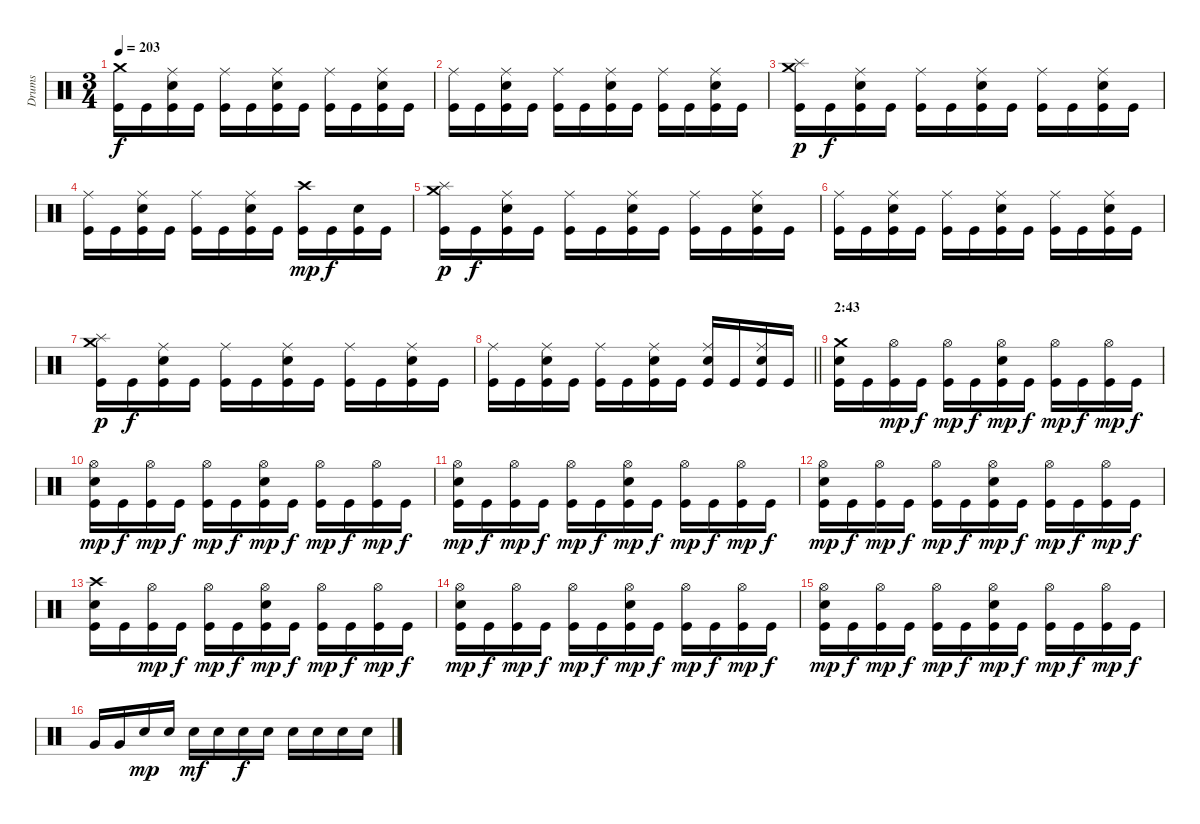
\track ("Drums" "Drums") {instrument percussion}
\staff {score}
\articulation defaults
\ts (3 4)
\tempo 203
\clef neutral
\ks c
("Crash medium (hit)" "Kick (hit)").16{dy f} "Kick (hit)".16 ("Ride (middle)" "Electric Snare (hit)" "Kick (hit)").16 "Kick (hit)".16 ("Ride (middle)" "Kick (hit)").16 "Kick (hit)".16 ("Ride (middle)" "Electric Snare (hit)" "Kick (hit)").16 "Kick (hit)".16 ("Ride (middle)" "Kick (hit)").16 "Kick (hit)".16 ("Ride (middle)" "Electric Snare (hit)" "Kick (hit)").16 "Kick (hit)".16 |
("Ride (middle)" "Kick (hit)").16 "Kick (hit)".16 ("Ride (middle)" "Electric Snare (hit)" "Kick (hit)").16 "Kick (hit)".16 ("Ride (middle)" "Kick (hit)").16 "Kick (hit)".16 ("Ride (middle)" "Electric Snare (hit)" "Kick (hit)").16 "Kick (hit)".16 ("Ride (middle)" "Kick (hit)").16 "Kick (hit)".16 ("Ride (middle)" "Electric Snare (hit)" "Kick (hit)").16 "Kick (hit)".16 |
("Splash (hit)" "Crash medium (hit)" "Kick (hit)").16{dy p} "Kick (hit)".16{dy f} ("Ride (middle)" "Electric Snare (hit)" "Kick (hit)").16 "Kick (hit)".16 ("Ride (middle)" "Kick (hit)").16 "Kick (hit)".16 ("Ride (middle)" "Electric Snare (hit)" "Kick (hit)").16 "Kick (hit)".16 ("Ride (middle)" "Kick (hit)").16 "Kick (hit)".16 ("Ride (middle)" "Electric Snare (hit)" "Kick (hit)").16 "Kick (hit)".16 |
("Ride (middle)" "Kick (hit)").16 "Kick (hit)".16 ("Ride (middle)" "Electric Snare (hit)" "Kick (hit)").16 "Kick (hit)".16 ("Ride (middle)" "Kick (hit)").16 "Kick (hit)".16 ("Ride (middle)" "Electric Snare (hit)" "Kick (hit)").16 "Kick (hit)".16 ("Crash high (hit)" "Kick (hit)").16{dy mp} "Kick (hit)".16{dy f} ("Electric Snare (hit)" "Kick (hit)").16 "Kick (hit)".16 |
("Splash (hit)" "Crash medium (hit)" "Kick (hit)").16{dy p} "Kick (hit)".16{dy f} ("Ride (middle)" "Electric Snare (hit)" "Kick (hit)").16 "Kick (hit)".16 ("Ride (middle)" "Kick (hit)").16 "Kick (hit)".16 ("Ride (middle)" "Electric Snare (hit)" "Kick (hit)").16 "Kick (hit)".16 ("Ride (middle)" "Kick (hit)").16 "Kick (hit)".16 ("Ride (middle)" "Electric Snare (hit)" "Kick (hit)").16 "Kick (hit)".16 |
("Ride (middle)" "Kick (hit)").16 "Kick (hit)".16 ("Ride (middle)" "Electric Snare (hit)" "Kick (hit)").16 "Kick (hit)".16 ("Ride (middle)" "Kick (hit)").16 "Kick (hit)".16 ("Ride (middle)" "Electric Snare (hit)" "Kick (hit)").16 "Kick (hit)".16 ("Ride (middle)" "Kick (hit)").16 "Kick (hit)".16 ("Ride (middle)" "Electric Snare (hit)" "Kick (hit)").16 "Kick (hit)".16 |
("Splash (hit)" "Crash medium (hit)" "Kick (hit)").16{dy p} "Kick (hit)".16{dy f} ("Ride (middle)" "Electric Snare (hit)" "Kick (hit)").16 "Kick (hit)".16 ("Ride (middle)" "Kick (hit)").16 "Kick (hit)".16 ("Ride (middle)" "Electric Snare (hit)" "Kick (hit)").16 "Kick (hit)".16 ("Ride (middle)" "Kick (hit)").16 "Kick (hit)".16 ("Ride (middle)" "Electric Snare (hit)" "Kick (hit)").16 "Kick (hit)".16 |
\barLineRight lightlight
("Ride (middle)" "Kick (hit)").16 "Kick (hit)".16 ("Ride (middle)" "Electric Snare (hit)" "Kick (hit)").16 "Kick (hit)".16 ("Ride (middle)" "Kick (hit)").16 "Kick (hit)".16 ("Ride (middle)" "Electric Snare (hit)" "Kick (hit)").16 "Kick (hit)".16 ("Ride (middle)" "Electric Snare (hit)" "Kick (hit)").16 "Kick (hit)".16 ("Ride (middle)" "Electric Snare (hit)" "Kick (hit)").16 "Kick (hit)".16 |
\section ("" "2:43")
("Crash medium (hit)" "Electric Snare (hit)" "Kick (hit)").16 "Kick (hit)".16 ("Hi-Hat (open)" "Kick (hit)").16{dy mp} "Kick (hit)".16{dy f} ("Hi-Hat (open)" "Kick (hit)").16{dy mp} "Kick (hit)".16{dy f} ("Hi-Hat (open)" "Electric Snare (hit)" "Kick (hit)").16{dy mp} "Kick (hit)".16{dy f} ("Hi-Hat (open)" "Kick (hit)").16{dy mp} "Kick (hit)".16{dy f} ("Hi-Hat (open)" "Kick (hit)").16{dy mp} "Kick (hit)".16{dy f} |
("Hi-Hat (open)" "Electric Snare (hit)" "Kick (hit)").16{dy mp} "Kick (hit)".16{dy f} ("Hi-Hat (open)" "Kick (hit)").16{dy mp} "Kick (hit)".16{dy f} ("Hi-Hat (open)" "Kick (hit)").16{dy mp} "Kick (hit)".16{dy f} ("Hi-Hat (open)" "Electric Snare (hit)" "Kick (hit)").16{dy mp} "Kick (hit)".16{dy f} ("Hi-Hat (open)" "Kick (hit)").16{dy mp} "Kick (hit)".16{dy f} ("Hi-Hat (open)" "Kick (hit)").16{dy mp} "Kick (hit)".16{dy f} |
("Hi-Hat (open)" "Electric Snare (hit)" "Kick (hit)").16{dy mp} "Kick (hit)".16{dy f} ("Hi-Hat (open)" "Kick (hit)").16{dy mp} "Kick (hit)".16{dy f} ("Hi-Hat (open)" "Kick (hit)").16{dy mp} "Kick (hit)".16{dy f} ("Hi-Hat (open)" "Electric Snare (hit)" "Kick (hit)").16{dy mp} "Kick (hit)".16{dy f} ("Hi-Hat (open)" "Kick (hit)").16{dy mp} "Kick (hit)".16{dy f} ("Hi-Hat (open)" "Kick (hit)").16{dy mp} "Kick (hit)".16{dy f} |
("Hi-Hat (open)" "Electric Snare (hit)" "Kick (hit)").16{dy mp} "Kick (hit)".16{dy f} ("Hi-Hat (open)" "Kick (hit)").16{dy mp} "Kick (hit)".16{dy f} ("Hi-Hat (open)" "Kick (hit)").16{dy mp} "Kick (hit)".16{dy f} ("Hi-Hat (open)" "Electric Snare (hit)" "Kick (hit)").16{dy mp} "Kick (hit)".16{dy f} ("Hi-Hat (open)" "Kick (hit)").16{dy mp} "Kick (hit)".16{dy f} ("Hi-Hat (open)" "Kick (hit)").16{dy mp} "Kick (hit)".16{dy f} |
("Crash high (hit)" "Electric Snare (hit)" "Kick (hit)").16 "Kick (hit)".16 ("Hi-Hat (open)" "Kick (hit)").16{dy mp} "Kick (hit)".16{dy f} ("Hi-Hat (open)" "Kick (hit)").16{dy mp} "Kick (hit)".16{dy f} ("Hi-Hat (open)" "Electric Snare (hit)" "Kick (hit)").16{dy mp} "Kick (hit)".16{dy f} ("Hi-Hat (open)" "Kick (hit)").16{dy mp} "Kick (hit)".16{dy f} ("Hi-Hat (open)" "Kick (hit)").16{dy mp} "Kick (hit)".16{dy f} |
("Hi-Hat (open)" "Electric Snare (hit)" "Kick (hit)").16{dy mp} "Kick (hit)".16{dy f} ("Hi-Hat (open)" "Kick (hit)").16{dy mp} "Kick (hit)".16{dy f} ("Hi-Hat (open)" "Kick (hit)").16{dy mp} "Kick (hit)".16{dy f} ("Hi-Hat (open)" "Electric Snare (hit)" "Kick (hit)").16{dy mp} "Kick (hit)".16{dy f} ("Hi-Hat (open)" "Kick (hit)").16{dy mp} "Kick (hit)".16{dy f} ("Hi-Hat (open)" "Kick (hit)").16{dy mp} "Kick (hit)".16{dy f} |
("Hi-Hat (open)" "Electric Snare (hit)" "Kick (hit)").16{dy mp} "Kick (hit)".16{dy f} ("Hi-Hat (open)" "Kick (hit)").16{dy mp} "Kick (hit)".16{dy f} ("Hi-Hat (open)" "Kick (hit)").16{dy mp} "Kick (hit)".16{dy f} ("Hi-Hat (open)" "Electric Snare (hit)" "Kick (hit)").16{dy mp} "Kick (hit)".16{dy f} ("Hi-Hat (open)" "Kick (hit)").16{dy mp} "Kick (hit)".16{dy f} ("Hi-Hat (open)" "Kick (hit)").16{dy mp} "Kick (hit)".16{dy f} |
"Very Low Tom (hit)".16 "Very Low Tom (hit)".16 "Electric Snare (hit)".16{dy mp} "Electric Snare (hit)".16 "Electric Snare (hit)".16{dy mf} "Electric Snare (hit)".16 "Electric Snare (hit)".16{dy f} "Electric Snare (hit)".16 "Electric Snare (hit)".16 "Electric Snare (hit)".16 "Electric Snare (hit)".16 "Electric Snare (hit)".16
